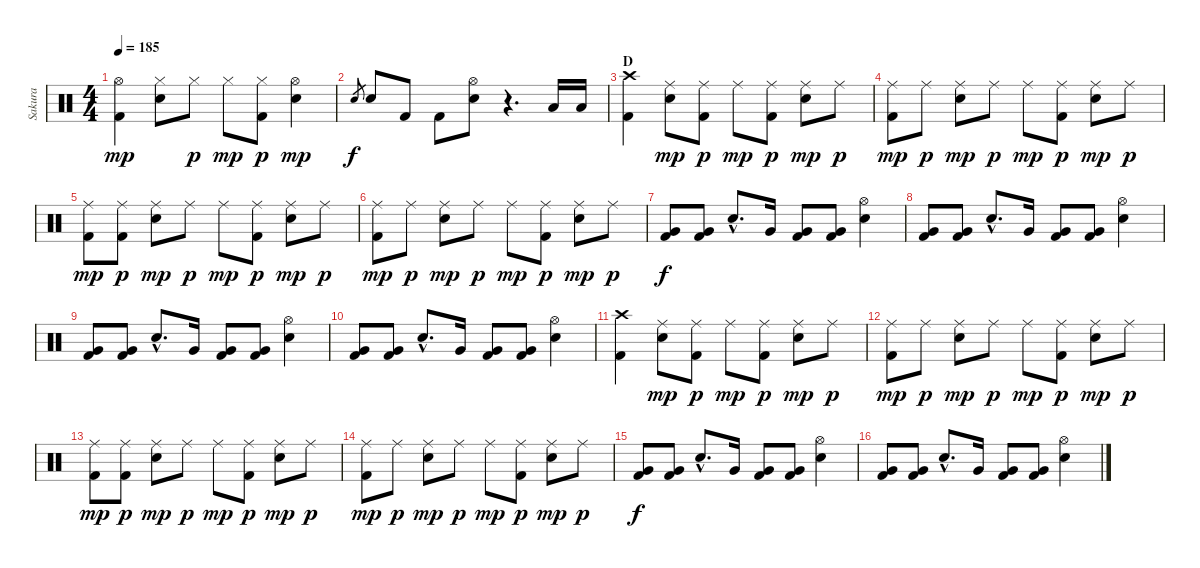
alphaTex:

\track ("Sakura" "Sakura") {instrument percussion}
\staff {score}
\articulation defaults
\ts (4 4)
\tempo 185
\clef neutral
\ks c
("Hi-Hat (open)" "Kick (hit) 2").4{dy mp} ("Hi-Hat (closed)" "Electric Snare (hit)").8 "Hi-Hat (closed)".8{dy p} "Hi-Hat (closed)".8{dy mp} ("Hi-Hat (closed)" "Kick (hit) 2").8{dy p} ("Hi-Hat (open)" "Electric Snare (hit)").4{dy mp} |
"Electric Snare (hit)".8{gr dy f} "Electric Snare (hit)".8 "Kick (hit) 2".8 "Kick (hit) 2".8 ("Hi-Hat (open)" "Electric Snare (hit)").8 r.4{d} "Low Tom (hit)".16 "Low Tom (hit)".16 |
\section ("" "D")
("Crash high (hit)" "Kick (hit) 2").4 ("Ride (middle)" "Electric Snare (hit)").8{dy mp} ("Ride (middle)" "Kick (hit) 2").8{dy p} "Ride (middle)".8{dy mp} ("Ride (middle)" "Kick (hit) 2").8{dy p} ("Ride (middle)" "Electric Snare (hit)").8{dy mp} "Ride (middle)".8{dy p} |
("Ride (middle)" "Kick (hit) 2").8{dy mp} "Ride (middle)".8{dy p} ("Ride (middle)" "Electric Snare (hit)").8{dy mp} "Ride (middle)".8{dy p} "Ride (middle)".8{dy mp} ("Ride (middle)" "Kick (hit) 2").8{dy p} ("Ride (middle)" "Electric Snare (hit)").8{dy mp} "Ride (middle)".8{dy p} |
("Ride (middle)" "Kick (hit) 2").8{dy mp} ("Ride (middle)" "Kick (hit) 2").8{dy p} ("Ride (middle)" "Electric Snare (hit)").8{dy mp} "Ride (middle)".8{dy p} "Ride (middle)".8{dy mp} ("Ride (middle)" "Kick (hit) 2").8{dy p} ("Ride (middle)" "Electric Snare (hit)").8{dy mp} "Ride (middle)".8{dy p} |
("Ride (middle)" "Kick (hit) 2").8{dy mp} "Ride (middle)".8{dy p} ("Ride (middle)" "Electric Snare (hit)").8{dy mp} "Ride (middle)".8{dy p} "Ride (middle)".8{dy mp} ("Ride (middle)" "Kick (hit) 2").8{dy p} ("Ride (middle)" "Electric Snare (hit)").8{dy mp} "Ride (middle)".8{dy p} |
("Very Low Tom (hit)" "Kick (hit) 2").8{dy f} ("Very Low Tom (hit)" "Kick (hit) 2").8 "Electric Snare (hit)"{hac}.8{d} "Very Low Tom (hit)".16 ("Very Low Tom (hit)" "Kick (hit) 2").8 ("Very Low Tom (hit)" "Kick (hit) 2").8 ("Hi-Hat (open)" "Electric Snare (hit)").4 |
("Very Low Tom (hit)" "Kick (hit) 2").8 ("Very Low Tom (hit)" "Kick (hit) 2").8 "Electric Snare (hit)"{hac}.8{d} "Very Low Tom (hit)".16 ("Very Low Tom (hit)" "Kick (hit) 2").8 ("Very Low Tom (hit)" "Kick (hit) 2").8 ("Hi-Hat (open)" "Electric Snare (hit)").4 |
("Very Low Tom (hit)" "Kick (hit) 2").8 ("Very Low Tom (hit)" "Kick (hit) 2").8 "Electric Snare (hit)"{hac}.8{d} "Very Low Tom (hit)".16 ("Very Low Tom (hit)" "Kick (hit) 2").8 ("Very Low Tom (hit)" "Kick (hit) 2").8 ("Hi-Hat (open)" "Electric Snare (hit)").4 |
("Very Low Tom (hit)" "Kick (hit) 2").8 ("Very Low Tom (hit)" "Kick (hit) 2").8 "Electric Snare (hit)"{hac}.8{d} "Very Low Tom (hit)".16 ("Very Low Tom (hit)" "Kick (hit) 2").8 ("Very Low Tom (hit)" "Kick (hit) 2").8 ("Hi-Hat (open)" "Electric Snare (hit)").4 |
("Crash high (hit)" "Kick (hit) 2").4 ("Ride (middle)" "Electric Snare (hit)").8{dy mp} ("Ride (middle)" "Kick (hit) 2").8{dy p} "Ride (middle)".8{dy mp} ("Ride (middle)" "Kick (hit) 2").8{dy p} ("Ride (middle)" "Electric Snare (hit)").8{dy mp} "Ride (middle)".8{dy p} |
("Ride (middle)" "Kick (hit) 2").8{dy mp} "Ride (middle)".8{dy p} ("Ride (middle)" "Electric Snare (hit)").8{dy mp} "Ride (middle)".8{dy p} "Ride (middle)".8{dy mp} ("Ride (middle)" "Kick (hit) 2").8{dy p} ("Ride (middle)" "Electric Snare (hit)").8{dy mp} "Ride (middle)".8{dy p} |
("Ride (middle)" "Kick (hit) 2").8{dy mp} ("Ride (middle)" "Kick (hit) 2").8{dy p} ("Ride (middle)" "Electric Snare (hit)").8{dy mp} "Ride (middle)".8{dy p} "Ride (middle)".8{dy mp} ("Ride (middle)" "Kick (hit) 2").8{dy p} ("Ride (middle)" "Electric Snare (hit)").8{dy mp} "Ride (middle)".8{dy p} |
("Ride (middle)" "Kick (hit) 2").8{dy mp} "Ride (middle)".8{dy p} ("Ride (middle)" "Electric Snare (hit)").8{dy mp} "Ride (middle)".8{dy p} "Ride (middle)".8{dy mp} ("Ride (middle)" "Kick (hit) 2").8{dy p} ("Ride (middle)" "Electric Snare (hit)").8{dy mp} "Ride (middle)".8{dy p} |
("Very Low Tom (hit)" "Kick (hit) 2").8{dy f} ("Very Low Tom (hit)" "Kick (hit) 2").8 "Electric Snare (hit)"{hac}.8{d} "Very Low Tom (hit)".16 ("Very Low Tom (hit)" "Kick (hit) 2").8 ("Very Low Tom (hit)" "Kick (hit) 2").8 ("Hi-Hat (open)" "Electric Snare (hit)").4 |
("Very Low Tom (hit)" "Kick (hit) 2").8 ("Very Low Tom (hit)" "Kick (hit) 2").8 "Electric Snare (hit)"{hac}.8{d} "Very Low Tom (hit)".16 ("Very Low Tom (hit)" "Kick (hit) 2").8 ("Very Low Tom (hit)" "Kick (hit) 2").8 ("Hi-Hat (open)" "Electric Snare (hit)").4
